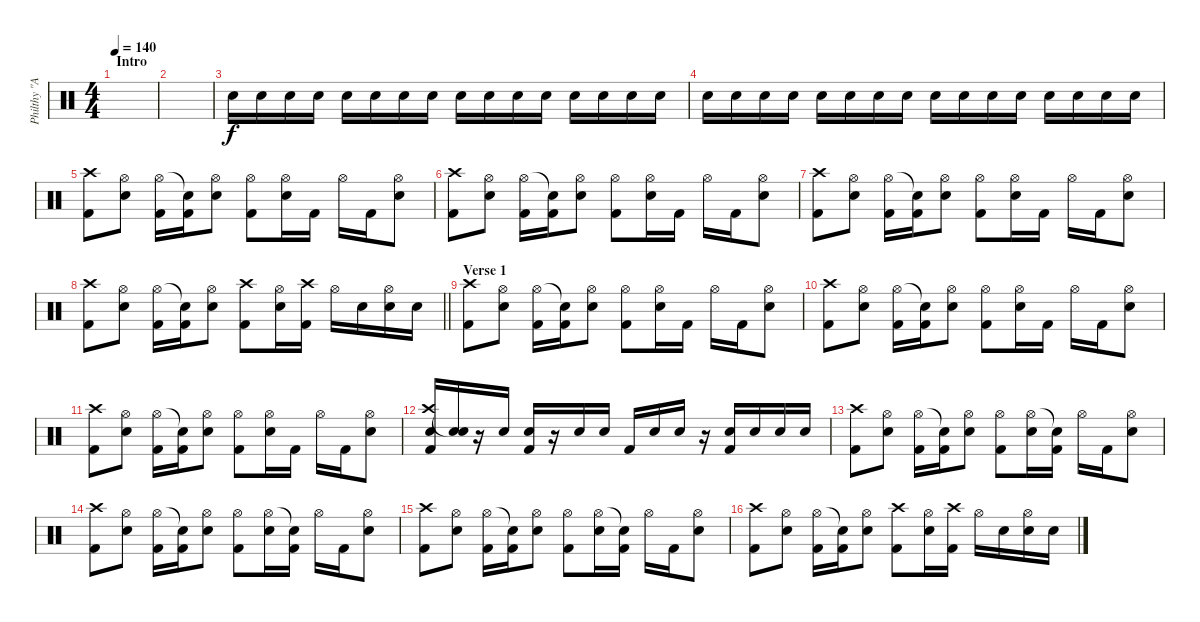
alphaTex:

\track ("Philthy \"Animal\" Taylor (drums)" "Philthy \"A") {instrument percussion}
\staff {score}
\articulation defaults
\ts (4 4)
\section ("" "Intro")
\tempo 140
\clef neutral
\ks c
|
|
"Electric Snare (hit)".16 "Electric Snare (hit)".16 "Electric Snare (hit)".16 "Electric Snare (hit)".16 "Electric Snare (hit)".16 "Electric Snare (hit)".16 "Electric Snare (hit)".16 "Electric Snare (hit)".16 "Electric Snare (hit)".16 "Electric Snare (hit)".16 "Electric Snare (hit)".16 "Electric Snare (hit)".16 "Electric Snare (hit)".16 "Electric Snare (hit)".16 "Electric Snare (hit)".16 "Electric Snare (hit)".16 |
"Electric Snare (hit)".16 "Electric Snare (hit)".16 "Electric Snare (hit)".16 "Electric Snare (hit)".16 "Electric Snare (hit)".16 "Electric Snare (hit)".16 "Electric Snare (hit)".16 "Electric Snare (hit)".16 "Electric Snare (hit)".16 "Electric Snare (hit)".16 "Electric Snare (hit)".16 "Electric Snare (hit)".16 "Electric Snare (hit)".16 "Electric Snare (hit)".16 "Electric Snare (hit)".16 "Electric Snare (hit)".16 |
("Crash high (hit)" "Kick (hit) 2").8 ("Hi-Hat (open)" "Electric Snare (hit)").8 ("Hi-Hat (open)" "Kick (hit) 2").16 ("Snare (hit)"{t} "Kick (hit) 2").16 ("Hi-Hat (open)" "Electric Snare (hit)").8 ("Hi-Hat (open)" "Kick (hit) 2").8 ("Hi-Hat (open)" "Electric Snare (hit)").16 "Kick (hit) 2".16 "Hi-Hat (open)".16 "Kick (hit) 2".16 ("Hi-Hat (open)" "Electric Snare (hit)").8 |
("Crash high (hit)" "Kick (hit) 2").8 ("Hi-Hat (open)" "Electric Snare (hit)").8 ("Hi-Hat (open)" "Kick (hit) 2").16 ("Snare (hit)"{t} "Kick (hit) 2").16 ("Hi-Hat (open)" "Electric Snare (hit)").8 ("Hi-Hat (open)" "Kick (hit) 2").8 ("Hi-Hat (open)" "Electric Snare (hit)").16 "Kick (hit) 2".16 "Hi-Hat (open)".16 "Kick (hit) 2".16 ("Hi-Hat (open)" "Electric Snare (hit)").8 |
("Crash high (hit)" "Kick (hit) 2").8 ("Hi-Hat (open)" "Electric Snare (hit)").8 ("Hi-Hat (open)" "Kick (hit) 2").16 ("Snare (hit)"{t} "Kick (hit) 2").16 ("Hi-Hat (open)" "Electric Snare (hit)").8 ("Hi-Hat (open)" "Kick (hit) 2").8 ("Hi-Hat (open)" "Electric Snare (hit)").16 "Kick (hit) 2".16 "Hi-Hat (open)".16 "Kick (hit) 2".16 ("Hi-Hat (open)" "Electric Snare (hit)").8 |
\barLineRight lightlight
("Crash high (hit)" "Kick (hit) 2").8 ("Hi-Hat (open)" "Electric Snare (hit)").8 ("Hi-Hat (open)" "Kick (hit) 2").16 ("Snare (hit)"{t} "Kick (hit) 2").16 ("Hi-Hat (open)" "Electric Snare (hit)").8 ("Crash high (hit)" "Kick (hit) 2").8 ("Hi-Hat (open)" "Electric Snare (hit)").16 ("Crash high (hit)" "Kick (hit) 2").16 "Hi-Hat (open)".16 "Electric Snare (hit)".16 ("Hi-Hat (open)" "Electric Snare (hit)").16 "Electric Snare (hit)".16 |
\section ("" "Verse 1")
("Crash high (hit)" "Kick (hit) 2").8 ("Hi-Hat (open)" "Electric Snare (hit)").8 ("Hi-Hat (open)" "Kick (hit) 2").16 ("Snare (hit)"{t} "Kick (hit) 2").16 ("Hi-Hat (open)" "Electric Snare (hit)").8 ("Hi-Hat (open)" "Kick (hit) 2").8 ("Hi-Hat (open)" "Electric Snare (hit)").16 "Kick (hit) 2".16 "Hi-Hat (open)".16 "Kick (hit) 2".16 ("Hi-Hat (open)" "Electric Snare (hit)").8 |
("Crash high (hit)" "Kick (hit) 2").8 ("Hi-Hat (open)" "Electric Snare (hit)").8 ("Hi-Hat (open)" "Kick (hit) 2").16 ("Snare (hit)"{t} "Kick (hit) 2").16 ("Hi-Hat (open)" "Electric Snare (hit)").8 ("Hi-Hat (open)" "Kick (hit) 2").8 ("Hi-Hat (open)" "Electric Snare (hit)").16 "Kick (hit) 2".16 "Hi-Hat (open)".16 "Kick (hit) 2".16 ("Hi-Hat (open)" "Electric Snare (hit)").8 |
("Crash high (hit)" "Kick (hit) 2").8 ("Hi-Hat (open)" "Electric Snare (hit)").8 ("Hi-Hat (open)" "Kick (hit) 2").16 ("Snare (hit)"{t} "Kick (hit) 2").16 ("Hi-Hat (open)" "Electric Snare (hit)").8 ("Hi-Hat (open)" "Kick (hit) 2").8 ("Hi-Hat (open)" "Electric Snare (hit)").16 "Kick (hit) 2".16 "Hi-Hat (open)".16 "Kick (hit) 2".16 ("Hi-Hat (open)" "Electric Snare (hit)").8 |
("Crash high (hit)" "Electric Snare (hit)" "Kick (hit) 2").16 ("Snare (hit)"{t} "Electric Snare (hit)").16 r.16 "Electric Snare (hit)".16 ("Electric Snare (hit)" "Kick (hit) 2").16 r.16 "Electric Snare (hit)".16 "Electric Snare (hit)".16 "Kick (hit) 2".16 "Electric Snare (hit)".16 "Electric Snare (hit)".16 r.16 ("Electric Snare (hit)" "Kick (hit) 2").16 "Electric Snare (hit)".16 "Electric Snare (hit)".16 "Electric Snare (hit)".16 |
("Crash high (hit)" "Kick (hit) 2").8 ("Hi-Hat (open)" "Electric Snare (hit)").8 ("Hi-Hat (open)" "Kick (hit) 2").16 ("Snare (hit)"{t} "Kick (hit) 2").16 ("Hi-Hat (open)" "Electric Snare (hit)").8 ("Hi-Hat (open)" "Kick (hit) 2").8 ("Hi-Hat (open)" "Electric Snare (hit)").16 ("Snare (hit)"{t} "Kick (hit) 2").16 "Hi-Hat (open)".16 "Kick (hit) 2".16 ("Hi-Hat (open)" "Electric Snare (hit)").8 |
("Crash high (hit)" "Kick (hit) 2").8 ("Hi-Hat (open)" "Electric Snare (hit)").8 ("Hi-Hat (open)" "Kick (hit) 2").16 ("Snare (hit)"{t} "Kick (hit) 2").16 ("Hi-Hat (open)" "Electric Snare (hit)").8 ("Hi-Hat (open)" "Kick (hit) 2").8 ("Hi-Hat (open)" "Electric Snare (hit)").16 ("Snare (hit)"{t} "Kick (hit) 2").16 "Hi-Hat (open)".16 "Kick (hit) 2".16 ("Hi-Hat (open)" "Electric Snare (hit)").8 |
("Crash high (hit)" "Kick (hit) 2").8 ("Hi-Hat (open)" "Electric Snare (hit)").8 ("Hi-Hat (open)" "Kick (hit) 2").16 ("Snare (hit)"{t} "Kick (hit) 2").16 ("Hi-Hat (open)" "Electric Snare (hit)").8 ("Hi-Hat (open)" "Kick (hit) 2").8 ("Hi-Hat (open)" "Electric Snare (hit)").16 ("Snare (hit)"{t} "Kick (hit) 2").16 "Hi-Hat (open)".16 "Kick (hit) 2".16 ("Hi-Hat (open)" "Electric Snare (hit)").8 |
("Crash high (hit)" "Kick (hit) 2").8 ("Hi-Hat (open)" "Electric Snare (hit)").8 ("Hi-Hat (open)" "Kick (hit) 2").16 ("Snare (hit)"{t} "Kick (hit) 2").16 ("Hi-Hat (open)" "Electric Snare (hit)").8 ("Crash high (hit)" "Kick (hit) 2").8 ("Hi-Hat (open)" "Electric Snare (hit)").16 ("Crash high (hit)" "Kick (hit) 2").16 "Hi-Hat (open)".16 "Electric Snare (hit)".16 ("Hi-Hat (open)" "Electric Snare (hit)").16 "Electric Snare (hit)".16
